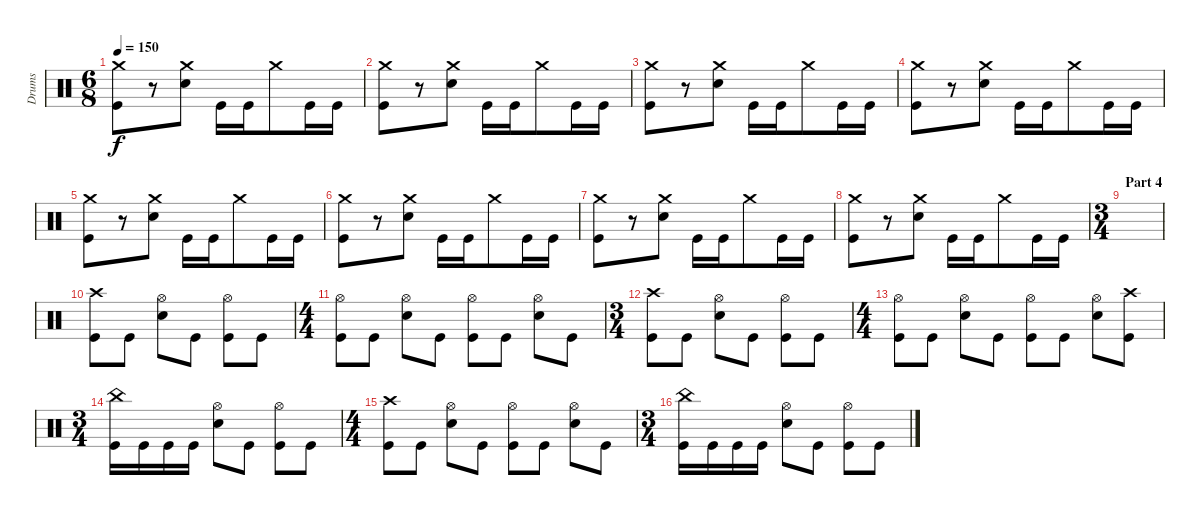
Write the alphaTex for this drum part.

\track ("Drums" "Drums") {instrument percussion}
\staff {score}
\articulation defaults
\ts (6 8)
\tempo 150
\clef neutral
\ks c
("Crash medium (hit)" "Kick (hit)").8{dy f} r.8 ("Crash medium (hit)" "Snare (hit) 2").8 "Kick (hit)".16 "Kick (hit)".16 "Crash medium (hit)".8 "Kick (hit)".16 "Kick (hit)".16 |
("Crash medium (hit)" "Kick (hit)").8 r.8 ("Crash medium (hit)" "Snare (hit) 2").8 "Kick (hit)".16 "Kick (hit)".16 "Crash medium (hit)".8 "Kick (hit)".16 "Kick (hit)".16 |
("Crash medium (hit)" "Kick (hit)").8 r.8 ("Crash medium (hit)" "Snare (hit) 2").8 "Kick (hit)".16 "Kick (hit)".16 "Crash medium (hit)".8 "Kick (hit)".16 "Kick (hit)".16 |
("Crash medium (hit)" "Kick (hit)").8 r.8 ("Crash medium (hit)" "Snare (hit) 2").8 "Kick (hit)".16 "Kick (hit)".16 "Crash medium (hit)".8 "Kick (hit)".16 "Kick (hit)".16 |
("Crash medium (hit)" "Kick (hit)").8 r.8 ("Crash medium (hit)" "Snare (hit) 2").8 "Kick (hit)".16 "Kick (hit)".16 "Crash medium (hit)".8 "Kick (hit)".16 "Kick (hit)".16 |
("Crash medium (hit)" "Kick (hit)").8 r.8 ("Crash medium (hit)" "Snare (hit) 2").8 "Kick (hit)".16 "Kick (hit)".16 "Crash medium (hit)".8 "Kick (hit)".16 "Kick (hit)".16 |
("Crash medium (hit)" "Kick (hit)").8 r.8 ("Crash medium (hit)" "Snare (hit) 2").8 "Kick (hit)".16 "Kick (hit)".16 "Crash medium (hit)".8 "Kick (hit)".16 "Kick (hit)".16 |
("Crash medium (hit)" "Kick (hit)").8 r.8 ("Crash medium (hit)" "Snare (hit) 2").8 "Kick (hit)".16 "Kick (hit)".16 "Crash medium (hit)".8 "Kick (hit)".16 "Kick (hit)".16 |
\ts (3 4)
\section ("" "Part 4")
|
("Crash high (hit)" "Kick (hit)").8 "Kick (hit)".8 ("Hi-Hat (open)" "Snare (hit) 2").8 "Kick (hit)".8 ("Hi-Hat (open)" "Kick (hit)").8 "Kick (hit)".8 |
\ts (4 4)
("Hi-Hat (open)" "Kick (hit)").8 "Kick (hit)".8 ("Hi-Hat (open)" "Snare (hit) 2").8 "Kick (hit)".8 ("Hi-Hat (open)" "Kick (hit)").8 "Kick (hit)".8 ("Hi-Hat (open)" "Snare (hit) 2").8 "Kick (hit)".8 |
\ts (3 4)
("Crash high (hit)" "Kick (hit)").8 "Kick (hit)".8 ("Hi-Hat (open)" "Snare (hit) 2").8 "Kick (hit)".8 ("Hi-Hat (open)" "Kick (hit)").8 "Kick (hit)".8 |
\ts (4 4)
("Hi-Hat (open)" "Kick (hit)").8 "Kick (hit)".8 ("Hi-Hat (open)" "Snare (hit) 2").8 "Kick (hit)".8 ("Hi-Hat (open)" "Kick (hit)").8 "Kick (hit)".8 ("Hi-Hat (open)" "Snare (hit) 2").8 ("Crash high (hit)" "Kick (hit)").8 |
\ts (3 4)
("China (hit)" "Kick (hit)").16 "Kick (hit)".16 "Kick (hit)".16 "Kick (hit)".16 ("Hi-Hat (open)" "Snare (hit) 2").8 "Kick (hit)".8 ("Hi-Hat (open)" "Kick (hit)").8 "Kick (hit)".8 |
\ts (4 4)
("Crash high (hit)" "Kick (hit)").8 "Kick (hit)".8 ("Hi-Hat (open)" "Snare (hit) 2").8 "Kick (hit)".8 ("Hi-Hat (open)" "Kick (hit)").8 "Kick (hit)".8 ("Hi-Hat (open)" "Snare (hit) 2").8 "Kick (hit)".8 |
\ts (3 4)
("China (hit)" "Kick (hit)").16 "Kick (hit)".16 "Kick (hit)".16 "Kick (hit)".16 ("Hi-Hat (open)" "Snare (hit) 2").8 "Kick (hit)".8 ("Hi-Hat (open)" "Kick (hit)").8 "Kick (hit)".8
